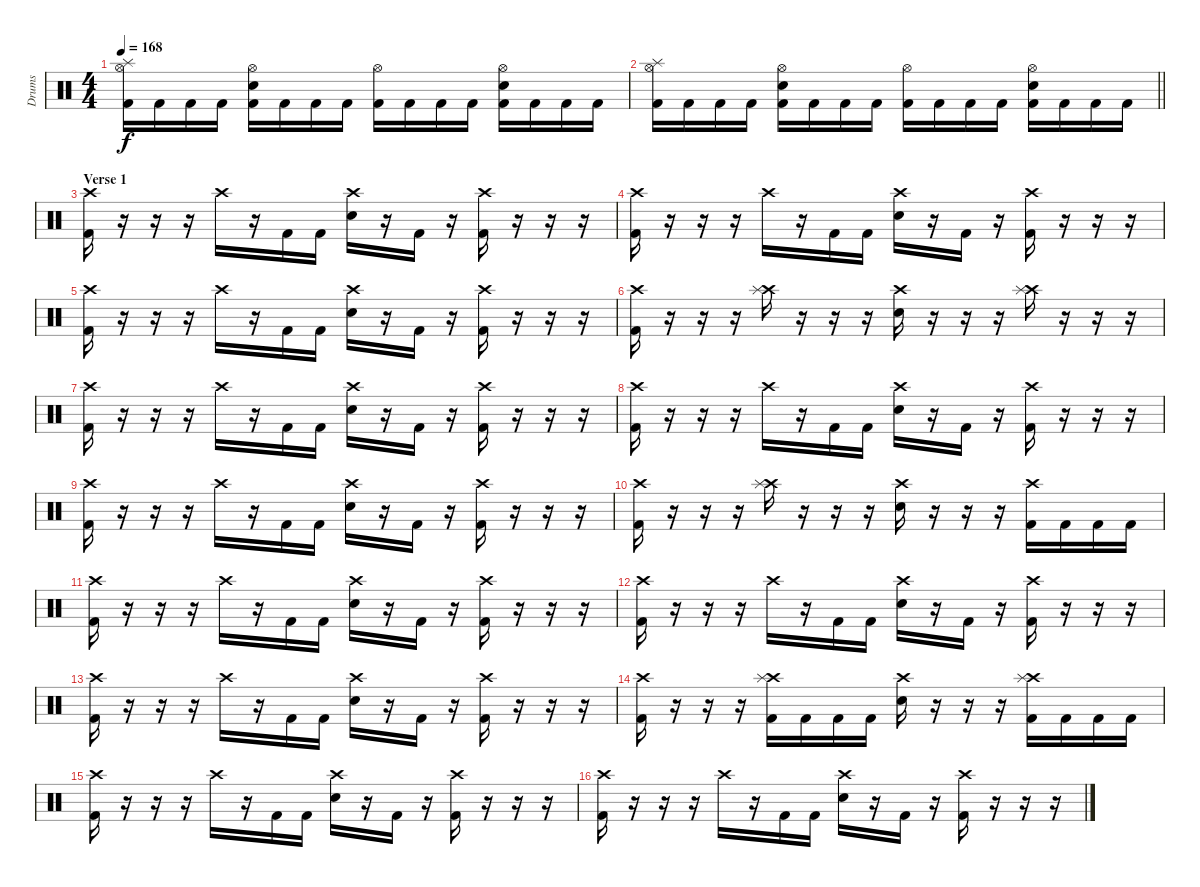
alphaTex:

\track ("Drums" "Drums") {instrument percussion}
\staff {score}
\articulation defaults
\ts (4 4)
\tempo 168
\clef neutral
\ks c
("Hi-Hat (open)" "Splash (hit)" "Kick (hit) 2").16{dy f} "Kick (hit) 2".16 "Kick (hit) 2".16 "Kick (hit) 2".16 ("Hi-Hat (open)" "Snare (hit) 2" "Kick (hit) 2").16 "Kick (hit) 2".16 "Kick (hit) 2".16 "Kick (hit) 2".16 ("Hi-Hat (open)" "Kick (hit) 2").16 "Kick (hit) 2".16 "Kick (hit) 2".16 "Kick (hit) 2".16 ("Hi-Hat (open)" "Snare (hit) 2" "Kick (hit) 2").16 "Kick (hit) 2".16 "Kick (hit) 2".16 "Kick (hit) 2".16 |
\barLineRight lightlight
("Hi-Hat (open)" "Splash (hit)" "Kick (hit) 2").16 "Kick (hit) 2".16 "Kick (hit) 2".16 "Kick (hit) 2".16 ("Hi-Hat (open)" "Snare (hit) 2" "Kick (hit) 2").16 "Kick (hit) 2".16 "Kick (hit) 2".16 "Kick (hit) 2".16 ("Hi-Hat (open)" "Kick (hit) 2").16 "Kick (hit) 2".16 "Kick (hit) 2".16 "Kick (hit) 2".16 ("Hi-Hat (open)" "Snare (hit) 2" "Kick (hit) 2").16 "Kick (hit) 2".16 "Kick (hit) 2".16 "Kick (hit) 2".16 |
\section ("" "Verse 1")
("Crash high (hit)" "Kick (hit) 2").16 r.16 r.16 r.16 "Crash high (hit)".16 r.16 "Kick (hit) 2".16 "Kick (hit) 2".16 ("Crash high (hit)" "Snare (hit) 2").16 r.16 "Kick (hit) 2".16 r.16 ("Crash high (hit)" "Kick (hit) 2").16 r.16 r.16 r.16 |
("Crash high (hit)" "Kick (hit) 2").16 r.16 r.16 r.16 "Crash high (hit)".16 r.16 "Kick (hit) 2".16 "Kick (hit) 2".16 ("Crash high (hit)" "Snare (hit) 2").16 r.16 "Kick (hit) 2".16 r.16 ("Crash high (hit)" "Kick (hit) 2").16 r.16 r.16 r.16 |
("Crash high (hit)" "Kick (hit) 2").16 r.16 r.16 r.16 "Crash high (hit)".16 r.16 "Kick (hit) 2".16 "Kick (hit) 2".16 ("Crash high (hit)" "Snare (hit) 2").16 r.16 "Kick (hit) 2".16 r.16 ("Crash high (hit)" "Kick (hit) 2").16 r.16 r.16 r.16 |
("Crash high (hit)" "Kick (hit) 2").16 r.16 r.16 r.16 ("Crash high (hit)" "Splash (hit)").16 r.16 r.16 r.16 ("Crash high (hit)" "Snare (hit) 2").16 r.16 r.16 r.16 ("Crash high (hit)" "Splash (hit)").16 r.16 r.16 r.16 |
("Crash high (hit)" "Kick (hit) 2").16 r.16 r.16 r.16 "Crash high (hit)".16 r.16 "Kick (hit) 2".16 "Kick (hit) 2".16 ("Crash high (hit)" "Snare (hit) 2").16 r.16 "Kick (hit) 2".16 r.16 ("Crash high (hit)" "Kick (hit) 2").16 r.16 r.16 r.16 |
("Crash high (hit)" "Kick (hit) 2").16 r.16 r.16 r.16 "Crash high (hit)".16 r.16 "Kick (hit) 2".16 "Kick (hit) 2".16 ("Crash high (hit)" "Snare (hit) 2").16 r.16 "Kick (hit) 2".16 r.16 ("Crash high (hit)" "Kick (hit) 2").16 r.16 r.16 r.16 |
("Crash high (hit)" "Kick (hit) 2").16 r.16 r.16 r.16 "Crash high (hit)".16 r.16 "Kick (hit) 2".16 "Kick (hit) 2".16 ("Crash high (hit)" "Snare (hit) 2").16 r.16 "Kick (hit) 2".16 r.16 ("Crash high (hit)" "Kick (hit) 2").16 r.16 r.16 r.16 |
("Crash high (hit)" "Kick (hit) 2").16 r.16 r.16 r.16 ("Crash high (hit)" "Splash (hit)").16 r.16 r.16 r.16 ("Crash high (hit)" "Snare (hit) 2").16 r.16 r.16 r.16 ("Crash high (hit)" "Kick (hit) 2").16 "Kick (hit) 2".16 "Kick (hit) 2".16 "Kick (hit) 2".16 |
("Crash high (hit)" "Kick (hit) 2").16 r.16 r.16 r.16 "Crash high (hit)".16 r.16 "Kick (hit) 2".16 "Kick (hit) 2".16 ("Crash high (hit)" "Snare (hit) 2").16 r.16 "Kick (hit) 2".16 r.16 ("Crash high (hit)" "Kick (hit) 2").16 r.16 r.16 r.16 |
("Crash high (hit)" "Kick (hit) 2").16 r.16 r.16 r.16 "Crash high (hit)".16 r.16 "Kick (hit) 2".16 "Kick (hit) 2".16 ("Crash high (hit)" "Snare (hit) 2").16 r.16 "Kick (hit) 2".16 r.16 ("Crash high (hit)" "Kick (hit) 2").16 r.16 r.16 r.16 |
("Crash high (hit)" "Kick (hit) 2").16 r.16 r.16 r.16 "Crash high (hit)".16 r.16 "Kick (hit) 2".16 "Kick (hit) 2".16 ("Crash high (hit)" "Snare (hit) 2").16 r.16 "Kick (hit) 2".16 r.16 ("Crash high (hit)" "Kick (hit) 2").16 r.16 r.16 r.16 |
("Crash high (hit)" "Kick (hit) 2").16 r.16 r.16 r.16 ("Crash high (hit)" "Splash (hit)" "Kick (hit) 2").16 "Kick (hit) 2".16 "Kick (hit) 2".16 "Kick (hit) 2".16 ("Crash high (hit)" "Snare (hit) 2").16 r.16 r.16 r.16 ("Crash high (hit)" "Splash (hit)" "Kick (hit) 2").16 "Kick (hit) 2".16 "Kick (hit) 2".16 "Kick (hit) 2".16 |
("Crash high (hit)" "Kick (hit) 2").16 r.16 r.16 r.16 "Crash high (hit)".16 r.16 "Kick (hit) 2".16 "Kick (hit) 2".16 ("Crash high (hit)" "Snare (hit) 2").16 r.16 "Kick (hit) 2".16 r.16 ("Crash high (hit)" "Kick (hit) 2").16 r.16 r.16 r.16 |
("Crash high (hit)" "Kick (hit) 2").16 r.16 r.16 r.16 "Crash high (hit)".16 r.16 "Kick (hit) 2".16 "Kick (hit) 2".16 ("Crash high (hit)" "Snare (hit) 2").16 r.16 "Kick (hit) 2".16 r.16 ("Crash high (hit)" "Kick (hit) 2").16 r.16 r.16 r.16
